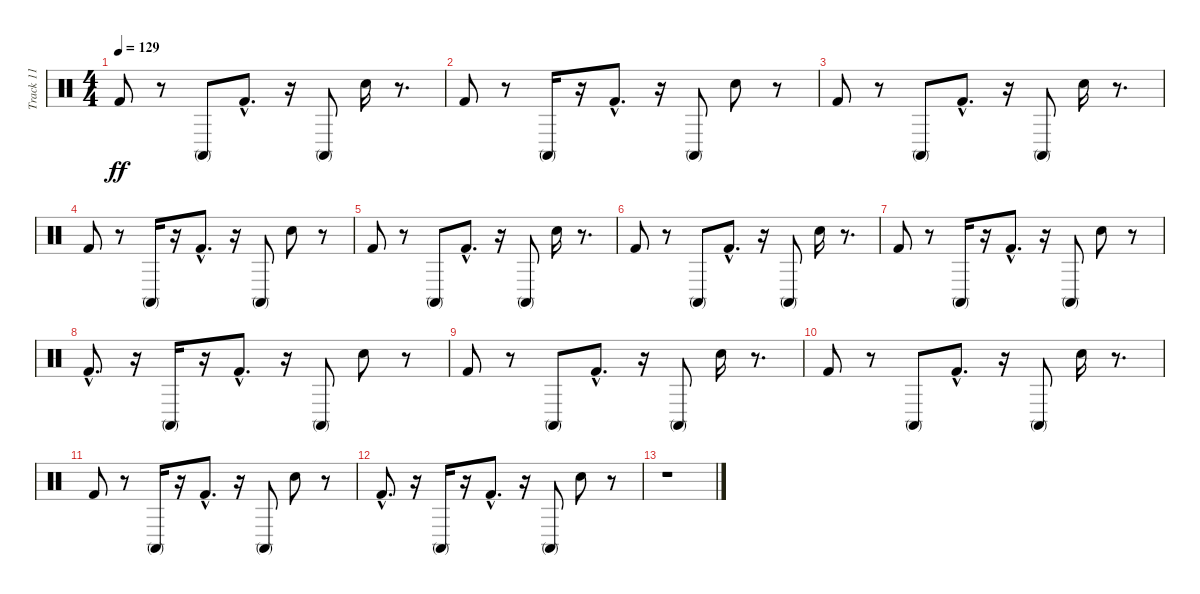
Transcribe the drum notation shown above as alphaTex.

\track ("Track 11" "Track 11") {instrument percussion}
\staff {score}
\articulation defaults
\ts (4 4)
\tempo 129
\clef neutral
\ks c "Kick (hit) 2".8{dy ff}
r.8 "Conga high (mute)".8 "Kick (hit) 2"{hac}.8{d} r.16 "Conga high (mute)".8 "Snare (hit) 2".16 r.8{d} |
"Kick (hit) 2".8 r.8 "Conga high (mute)".16 r.16 "Kick (hit) 2"{hac}.8{d} r.16 "Conga high (mute)".8 "Snare (hit) 2".8 r.8 |
"Kick (hit) 2".8 r.8 "Conga high (mute)".8 "Kick (hit) 2"{hac}.8{d} r.16 "Conga high (mute)".8 "Snare (hit) 2".16 r.8{d} |
"Kick (hit) 2".8 r.8 "Conga high (mute)".16 r.16 "Kick (hit) 2"{hac}.8{d} r.16 "Conga high (mute)".8 "Snare (hit) 2".8 r.8 |
"Kick (hit) 2".8 r.8 "Conga high (mute)".8 "Kick (hit) 2"{hac}.8{d} r.16 "Conga high (mute)".8 "Snare (hit) 2".16 r.8{d} |
"Kick (hit) 2".8 r.8 "Conga high (mute)".8 "Kick (hit) 2"{hac}.8{d} r.16 "Conga high (mute)".8 "Snare (hit) 2".16 r.8{d} |
"Kick (hit) 2".8 r.8 "Conga high (mute)".16 r.16 "Kick (hit) 2"{hac}.8{d} r.16 "Conga high (mute)".8 "Snare (hit) 2".8 r.8 |
"Kick (hit) 2"{hac}.8{d} r.16 "Conga high (mute)".16 r.16 "Kick (hit) 2"{hac}.8{d} r.16 "Conga high (mute)".8 "Snare (hit) 2".8 r.8 |
"Kick (hit) 2".8 r.8 "Conga high (mute)".8 "Kick (hit) 2"{hac}.8{d} r.16 "Conga high (mute)".8 "Snare (hit) 2".16 r.8{d} |
"Kick (hit) 2".8 r.8 "Conga high (mute)".8 "Kick (hit) 2"{hac}.8{d} r.16 "Conga high (mute)".8 "Snare (hit) 2".16 r.8{d} |
"Kick (hit) 2".8 r.8 "Conga high (mute)".16 r.16 "Kick (hit) 2"{hac}.8{d} r.16 "Conga high (mute)".8 "Snare (hit) 2".8 r.8 |
"Kick (hit) 2"{hac}.8{d} r.16 "Conga high (mute)".16 r.16 "Kick (hit) 2"{hac}.8{d} r.16 "Conga high (mute)".8 "Snare (hit) 2".8 r.8 |
r.1
